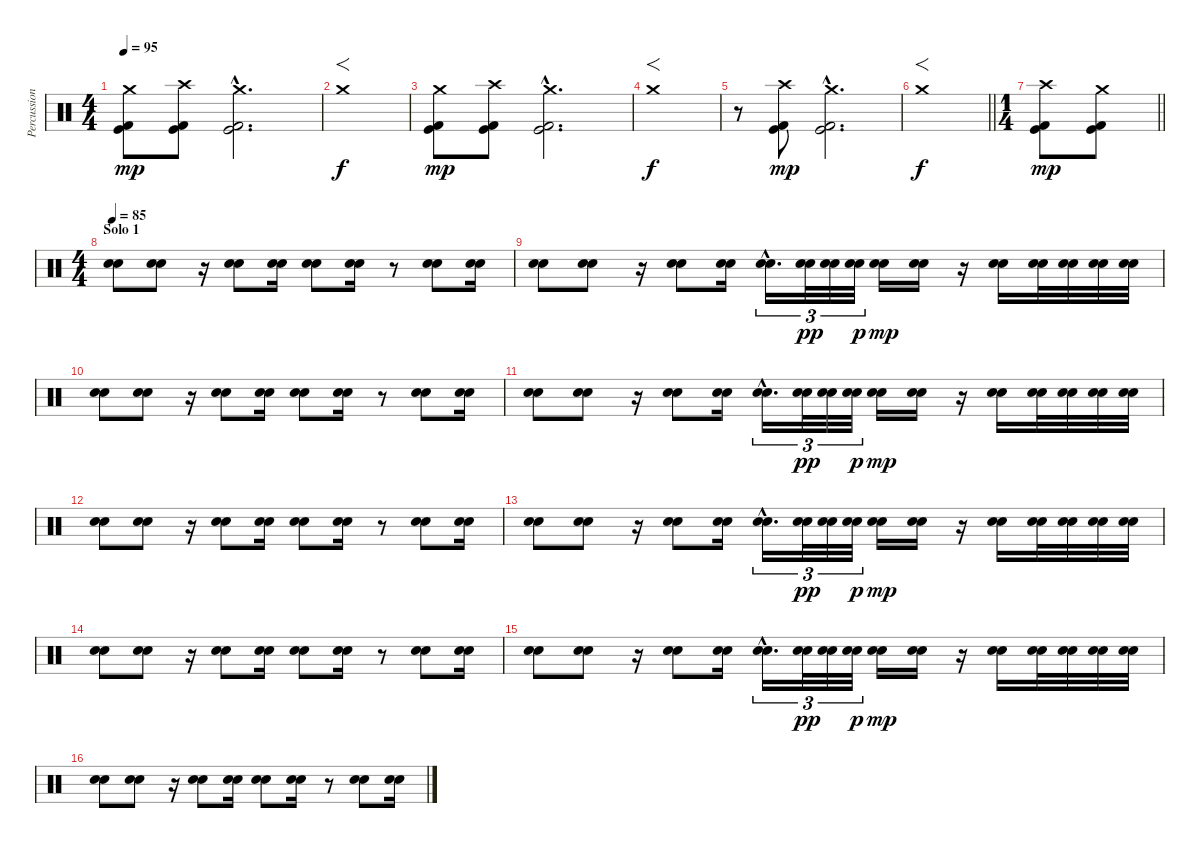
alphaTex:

\track ("Percussion" "Percussion") {instrument percussion}
\staff {score}
\articulation defaults
\ts (4 4)
\tempo 95
\clef neutral
\ks c
("Crash medium (hit)" "Kick (hit)" "Kick (hit) 2").8{dy mp} ("Crash high (hit)" "Kick (hit)" "Kick (hit) 2").8 ("Crash medium (hit)"{hac} "Kick (hit)"{hac} "Kick (hit) 2"{hac}).2{d} |
"Crash medium (hit)".1{f dy f} |
("Crash medium (hit)" "Kick (hit)" "Kick (hit) 2").8{dy mp} ("Crash high (hit)" "Kick (hit)" "Kick (hit) 2").8 ("Crash medium (hit)"{hac} "Kick (hit)"{hac} "Kick (hit) 2"{hac}).2{d} |
"Crash medium (hit)".1{f dy f} |
r.8 ("Crash high (hit)" "Kick (hit)" "Kick (hit) 2").8{dy mp} ("Crash medium (hit)"{hac} "Kick (hit)"{hac} "Kick (hit) 2"{hac}).2{d} |
\barLineRight lightlight "Crash medium (hit)".1{f dy f}
|
\ts (1 4)
\barLineRight lightlight
("Crash high (hit)" "Kick (hit)" "Kick (hit) 2").8{dy mp} ("Crash medium (hit)" "Kick (hit)" "Kick (hit) 2").8 |
\ts (4 4)
\section ("" "Solo 1")
\tempo 85
("Snare (hit) 2" "Electric Snare (hit)").8 ("Snare (hit) 2" "Electric Snare (hit)").8 r.16 ("Snare (hit) 2" "Electric Snare (hit)").8 ("Snare (hit) 2" "Electric Snare (hit)").16 ("Snare (hit) 2" "Electric Snare (hit)").8 ("Snare (hit) 2" "Electric Snare (hit)").16 r.8 ("Snare (hit) 2" "Electric Snare (hit)").8 ("Snare (hit) 2" "Electric Snare (hit)").16 |
("Snare (hit) 2" "Electric Snare (hit)").8 ("Snare (hit) 2" "Electric Snare (hit)").8 r.16 ("Snare (hit) 2" "Electric Snare (hit)").8 ("Snare (hit) 2" "Electric Snare (hit)").16 ("Snare (hit) 2"{hac} "Electric Snare (hit)"{hac}).16{d tu (3 2)} ("Snare (hit) 2" "Electric Snare (hit)").32{tu (3 2) dy pp} ("Snare (hit) 2" "Electric Snare (hit)").32{tu (3 2)} ("Snare (hit) 2" "Electric Snare (hit)").32{tu (3 2) dy p} ("Snare (hit) 2" "Electric Snare (hit)").16{dy mp} ("Snare (hit) 2" "Electric Snare (hit)").16 r.16 ("Snare (hit) 2" "Electric Snare (hit)").16 ("Snare (hit) 2" "Electric Snare (hit)").32 ("Snare (hit) 2" "Electric Snare (hit)").32 ("Snare (hit) 2" "Electric Snare (hit)").32 ("Snare (hit) 2" "Electric Snare (hit)").32 |
("Snare (hit) 2" "Electric Snare (hit)").8 ("Snare (hit) 2" "Electric Snare (hit)").8 r.16 ("Snare (hit) 2" "Electric Snare (hit)").8 ("Snare (hit) 2" "Electric Snare (hit)").16 ("Snare (hit) 2" "Electric Snare (hit)").8 ("Snare (hit) 2" "Electric Snare (hit)").16 r.8 ("Snare (hit) 2" "Electric Snare (hit)").8 ("Snare (hit) 2" "Electric Snare (hit)").16 |
("Snare (hit) 2" "Electric Snare (hit)").8 ("Snare (hit) 2" "Electric Snare (hit)").8 r.16 ("Snare (hit) 2" "Electric Snare (hit)").8 ("Snare (hit) 2" "Electric Snare (hit)").16 ("Snare (hit) 2"{hac} "Electric Snare (hit)"{hac}).16{d tu (3 2)} ("Snare (hit) 2" "Electric Snare (hit)").32{tu (3 2) dy pp} ("Snare (hit) 2" "Electric Snare (hit)").32{tu (3 2)} ("Snare (hit) 2" "Electric Snare (hit)").32{tu (3 2) dy p} ("Snare (hit) 2" "Electric Snare (hit)").16{dy mp} ("Snare (hit) 2" "Electric Snare (hit)").16 r.16 ("Snare (hit) 2" "Electric Snare (hit)").16 ("Snare (hit) 2" "Electric Snare (hit)").32 ("Snare (hit) 2" "Electric Snare (hit)").32 ("Snare (hit) 2" "Electric Snare (hit)").32 ("Snare (hit) 2" "Electric Snare (hit)").32 |
("Snare (hit) 2" "Electric Snare (hit)").8 ("Snare (hit) 2" "Electric Snare (hit)").8 r.16 ("Snare (hit) 2" "Electric Snare (hit)").8 ("Snare (hit) 2" "Electric Snare (hit)").16 ("Snare (hit) 2" "Electric Snare (hit)").8 ("Snare (hit) 2" "Electric Snare (hit)").16 r.8 ("Snare (hit) 2" "Electric Snare (hit)").8 ("Snare (hit) 2" "Electric Snare (hit)").16 |
("Snare (hit) 2" "Electric Snare (hit)").8 ("Snare (hit) 2" "Electric Snare (hit)").8 r.16 ("Snare (hit) 2" "Electric Snare (hit)").8 ("Snare (hit) 2" "Electric Snare (hit)").16 ("Snare (hit) 2"{hac} "Electric Snare (hit)"{hac}).16{d tu (3 2)} ("Snare (hit) 2" "Electric Snare (hit)").32{tu (3 2) dy pp} ("Snare (hit) 2" "Electric Snare (hit)").32{tu (3 2)} ("Snare (hit) 2" "Electric Snare (hit)").32{tu (3 2) dy p} ("Snare (hit) 2" "Electric Snare (hit)").16{dy mp} ("Snare (hit) 2" "Electric Snare (hit)").16 r.16 ("Snare (hit) 2" "Electric Snare (hit)").16 ("Snare (hit) 2" "Electric Snare (hit)").32 ("Snare (hit) 2" "Electric Snare (hit)").32 ("Snare (hit) 2" "Electric Snare (hit)").32 ("Snare (hit) 2" "Electric Snare (hit)").32 |
("Snare (hit) 2" "Electric Snare (hit)").8 ("Snare (hit) 2" "Electric Snare (hit)").8 r.16 ("Snare (hit) 2" "Electric Snare (hit)").8 ("Snare (hit) 2" "Electric Snare (hit)").16 ("Snare (hit) 2" "Electric Snare (hit)").8 ("Snare (hit) 2" "Electric Snare (hit)").16 r.8 ("Snare (hit) 2" "Electric Snare (hit)").8 ("Snare (hit) 2" "Electric Snare (hit)").16 |
("Snare (hit) 2" "Electric Snare (hit)").8 ("Snare (hit) 2" "Electric Snare (hit)").8 r.16 ("Snare (hit) 2" "Electric Snare (hit)").8 ("Snare (hit) 2" "Electric Snare (hit)").16 ("Snare (hit) 2"{hac} "Electric Snare (hit)"{hac}).16{d tu (3 2)} ("Snare (hit) 2" "Electric Snare (hit)").32{tu (3 2) dy pp} ("Snare (hit) 2" "Electric Snare (hit)").32{tu (3 2)} ("Snare (hit) 2" "Electric Snare (hit)").32{tu (3 2) dy p} ("Snare (hit) 2" "Electric Snare (hit)").16{dy mp} ("Snare (hit) 2" "Electric Snare (hit)").16 r.16 ("Snare (hit) 2" "Electric Snare (hit)").16 ("Snare (hit) 2" "Electric Snare (hit)").32 ("Snare (hit) 2" "Electric Snare (hit)").32 ("Snare (hit) 2" "Electric Snare (hit)").32 ("Snare (hit) 2" "Electric Snare (hit)").32 |
("Snare (hit) 2" "Electric Snare (hit)").8 ("Snare (hit) 2" "Electric Snare (hit)").8 r.16 ("Snare (hit) 2" "Electric Snare (hit)").8 ("Snare (hit) 2" "Electric Snare (hit)").16 ("Snare (hit) 2" "Electric Snare (hit)").8 ("Snare (hit) 2" "Electric Snare (hit)").16 r.8 ("Snare (hit) 2" "Electric Snare (hit)").8 ("Snare (hit) 2" "Electric Snare (hit)").16
